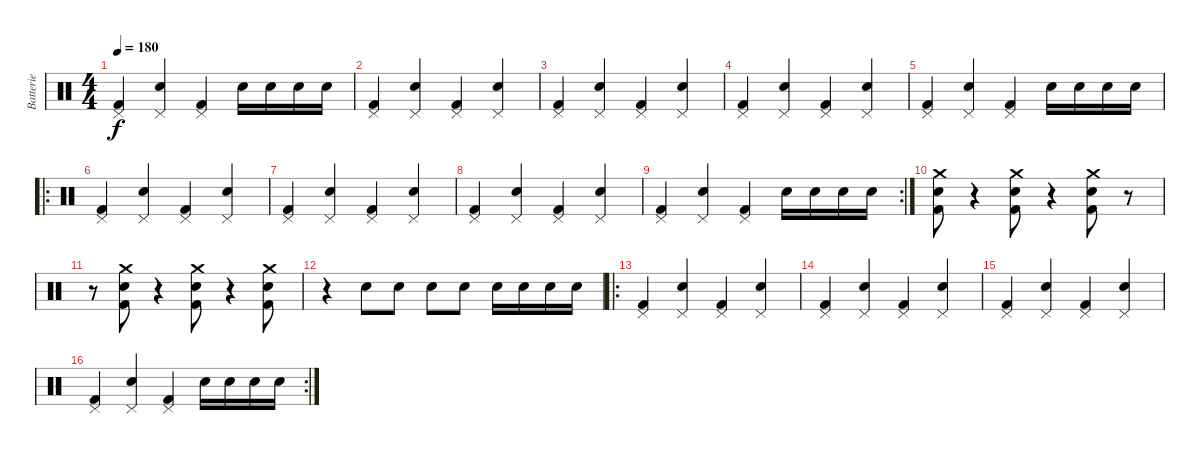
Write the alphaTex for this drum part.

\track ("Batterie" "Batterie") {instrument percussion}
\staff {score}
\articulation defaults
\ts (4 4)
\tempo 180
\clef neutral
\ks c
("Kick (hit) 2" "Pedal Hi-Hat (hit)").4{dy f} ("Electric Snare (hit)" "Pedal Hi-Hat (hit)").4 ("Kick (hit) 2" "Pedal Hi-Hat (hit)").4 "Electric Snare (hit)".16 "Electric Snare (hit)".16 "Electric Snare (hit)".16 "Electric Snare (hit)".16 |
("Kick (hit) 2" "Pedal Hi-Hat (hit)").4 ("Electric Snare (hit)" "Pedal Hi-Hat (hit)").4 ("Kick (hit) 2" "Pedal Hi-Hat (hit)").4 ("Electric Snare (hit)" "Pedal Hi-Hat (hit)").4 |
("Kick (hit) 2" "Pedal Hi-Hat (hit)").4 ("Electric Snare (hit)" "Pedal Hi-Hat (hit)").4 ("Kick (hit) 2" "Pedal Hi-Hat (hit)").4 ("Electric Snare (hit)" "Pedal Hi-Hat (hit)").4 |
("Kick (hit) 2" "Pedal Hi-Hat (hit)").4 ("Electric Snare (hit)" "Pedal Hi-Hat (hit)").4 ("Kick (hit) 2" "Pedal Hi-Hat (hit)").4 ("Electric Snare (hit)" "Pedal Hi-Hat (hit)").4 |
("Kick (hit) 2" "Pedal Hi-Hat (hit)").4 ("Electric Snare (hit)" "Pedal Hi-Hat (hit)").4 ("Kick (hit) 2" "Pedal Hi-Hat (hit)").4 "Electric Snare (hit)".16 "Electric Snare (hit)".16 "Electric Snare (hit)".16 "Electric Snare (hit)".16 |
\ro
("Kick (hit) 2" "Pedal Hi-Hat (hit)").4 ("Electric Snare (hit)" "Pedal Hi-Hat (hit)").4 ("Kick (hit) 2" "Pedal Hi-Hat (hit)").4 ("Electric Snare (hit)" "Pedal Hi-Hat (hit)").4 |
("Kick (hit) 2" "Pedal Hi-Hat (hit)").4 ("Electric Snare (hit)" "Pedal Hi-Hat (hit)").4 ("Kick (hit) 2" "Pedal Hi-Hat (hit)").4 ("Electric Snare (hit)" "Pedal Hi-Hat (hit)").4 |
("Kick (hit) 2" "Pedal Hi-Hat (hit)").4 ("Electric Snare (hit)" "Pedal Hi-Hat (hit)").4 ("Kick (hit) 2" "Pedal Hi-Hat (hit)").4 ("Electric Snare (hit)" "Pedal Hi-Hat (hit)").4 |
\rc 2
("Kick (hit) 2" "Pedal Hi-Hat (hit)").4 ("Electric Snare (hit)" "Pedal Hi-Hat (hit)").4 ("Kick (hit) 2" "Pedal Hi-Hat (hit)").4 "Electric Snare (hit)".16 "Electric Snare (hit)".16 "Electric Snare (hit)".16 "Electric Snare (hit)".16 |
("Kick (hit) 2" "Electric Snare (hit)" "Crash medium (hit)").8 r.4 ("Kick (hit) 2" "Electric Snare (hit)" "Crash medium (hit)").8 r.4 ("Kick (hit) 2" "Electric Snare (hit)" "Crash medium (hit)").8 r.8 |
r.8 ("Kick (hit) 2" "Electric Snare (hit)" "Crash medium (hit)").8 r.4 ("Kick (hit) 2" "Electric Snare (hit)" "Crash medium (hit)").8 r.4 ("Kick (hit) 2" "Electric Snare (hit)" "Crash medium (hit)").8 |
r.4 "Electric Snare (hit)".8 "Electric Snare (hit)".8 "Electric Snare (hit)".8 "Electric Snare (hit)".8 "Electric Snare (hit)".16 "Electric Snare (hit)".16 "Electric Snare (hit)".16 "Electric Snare (hit)".16 |
\ro
("Kick (hit) 2" "Pedal Hi-Hat (hit)").4 ("Electric Snare (hit)" "Pedal Hi-Hat (hit)").4 ("Kick (hit) 2" "Pedal Hi-Hat (hit)").4 ("Electric Snare (hit)" "Pedal Hi-Hat (hit)").4 |
("Kick (hit) 2" "Pedal Hi-Hat (hit)").4 ("Electric Snare (hit)" "Pedal Hi-Hat (hit)").4 ("Kick (hit) 2" "Pedal Hi-Hat (hit)").4 ("Electric Snare (hit)" "Pedal Hi-Hat (hit)").4 |
("Kick (hit) 2" "Pedal Hi-Hat (hit)").4 ("Electric Snare (hit)" "Pedal Hi-Hat (hit)").4 ("Kick (hit) 2" "Pedal Hi-Hat (hit)").4 ("Electric Snare (hit)" "Pedal Hi-Hat (hit)").4 |
\rc 2
("Kick (hit) 2" "Pedal Hi-Hat (hit)").4 ("Electric Snare (hit)" "Pedal Hi-Hat (hit)").4 ("Kick (hit) 2" "Pedal Hi-Hat (hit)").4 "Electric Snare (hit)".16 "Electric Snare (hit)".16 "Electric Snare (hit)".16 "Electric Snare (hit)".16
